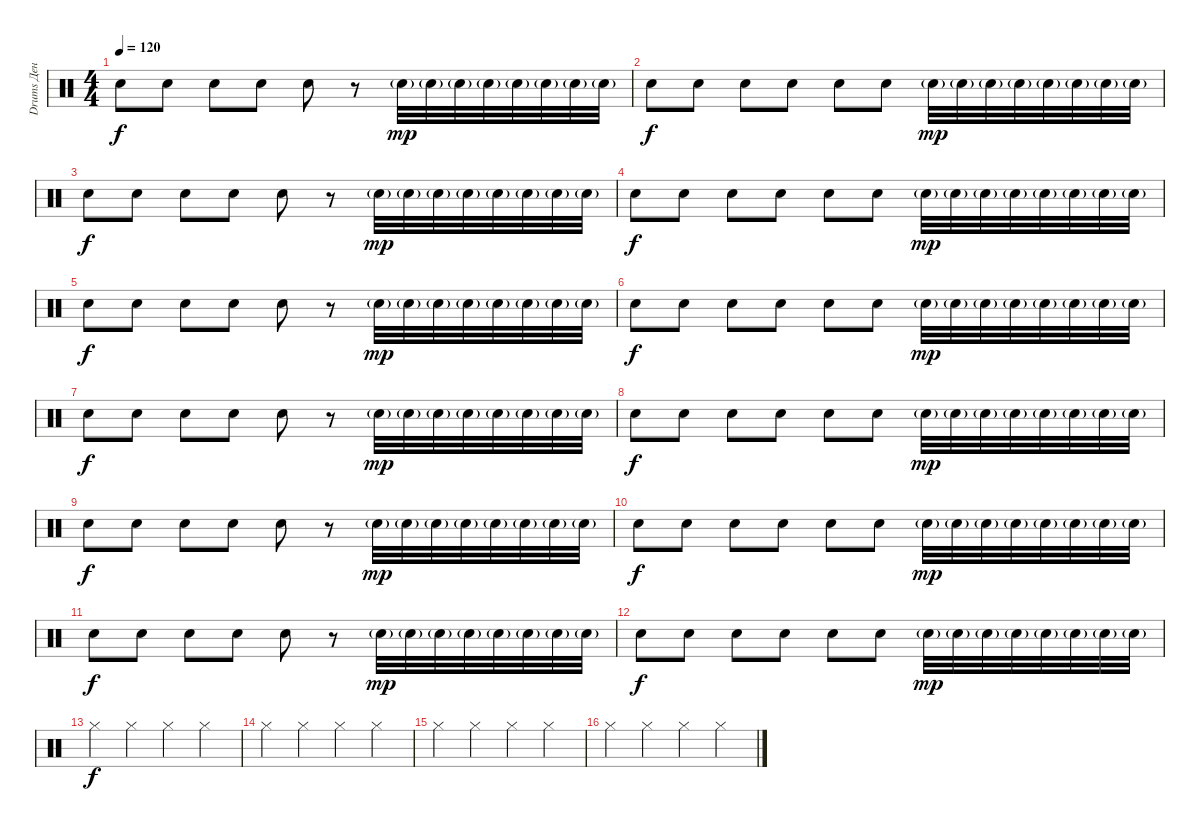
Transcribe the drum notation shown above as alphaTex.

\track ("Drums Ден" "Drums Ден") {instrument percussion}
\staff {score}
\articulation defaults
\ts (4 4)
\tempo 120
\clef neutral
\ks c "Electric Snare (hit)".8{dy f} "Electric Snare (hit)".8 "Electric Snare (hit)".8 "Electric Snare (hit)".8 "Electric Snare (hit)".8
r.8 "Electric Snare (hit)"{g}.32{dy mp} "Electric Snare (hit)"{g}.32 "Electric Snare (hit)"{g}.32 "Electric Snare (hit)"{g}.32 "Electric Snare (hit)"{g}.32 "Electric Snare (hit)"{g}.32 "Electric Snare (hit)"{g}.32 "Electric Snare (hit)"{g}.32 |
"Electric Snare (hit)".8{dy f} "Electric Snare (hit)".8 "Electric Snare (hit)".8 "Electric Snare (hit)".8 "Electric Snare (hit)".8 "Electric Snare (hit)".8 "Electric Snare (hit)"{g}.32{dy mp} "Electric Snare (hit)"{g}.32 "Electric Snare (hit)"{g}.32 "Electric Snare (hit)"{g}.32 "Electric Snare (hit)"{g}.32 "Electric Snare (hit)"{g}.32 "Electric Snare (hit)"{g}.32 "Electric Snare (hit)"{g}.32 |
"Electric Snare (hit)".8{dy f} "Electric Snare (hit)".8 "Electric Snare (hit)".8 "Electric Snare (hit)".8 "Electric Snare (hit)".8 r.8 "Electric Snare (hit)"{g}.32{dy mp} "Electric Snare (hit)"{g}.32 "Electric Snare (hit)"{g}.32 "Electric Snare (hit)"{g}.32 "Electric Snare (hit)"{g}.32 "Electric Snare (hit)"{g}.32 "Electric Snare (hit)"{g}.32 "Electric Snare (hit)"{g}.32 |
"Electric Snare (hit)".8{dy f} "Electric Snare (hit)".8 "Electric Snare (hit)".8 "Electric Snare (hit)".8 "Electric Snare (hit)".8 "Electric Snare (hit)".8 "Electric Snare (hit)"{g}.32{dy mp} "Electric Snare (hit)"{g}.32 "Electric Snare (hit)"{g}.32 "Electric Snare (hit)"{g}.32 "Electric Snare (hit)"{g}.32 "Electric Snare (hit)"{g}.32 "Electric Snare (hit)"{g}.32 "Electric Snare (hit)"{g}.32 |
"Electric Snare (hit)".8{dy f} "Electric Snare (hit)".8 "Electric Snare (hit)".8 "Electric Snare (hit)".8 "Electric Snare (hit)".8 r.8 "Electric Snare (hit)"{g}.32{dy mp} "Electric Snare (hit)"{g}.32 "Electric Snare (hit)"{g}.32 "Electric Snare (hit)"{g}.32 "Electric Snare (hit)"{g}.32 "Electric Snare (hit)"{g}.32 "Electric Snare (hit)"{g}.32 "Electric Snare (hit)"{g}.32 |
"Electric Snare (hit)".8{dy f} "Electric Snare (hit)".8 "Electric Snare (hit)".8 "Electric Snare (hit)".8 "Electric Snare (hit)".8 "Electric Snare (hit)".8 "Electric Snare (hit)"{g}.32{dy mp} "Electric Snare (hit)"{g}.32 "Electric Snare (hit)"{g}.32 "Electric Snare (hit)"{g}.32 "Electric Snare (hit)"{g}.32 "Electric Snare (hit)"{g}.32 "Electric Snare (hit)"{g}.32 "Electric Snare (hit)"{g}.32 |
"Electric Snare (hit)".8{dy f} "Electric Snare (hit)".8 "Electric Snare (hit)".8 "Electric Snare (hit)".8 "Electric Snare (hit)".8 r.8 "Electric Snare (hit)"{g}.32{dy mp} "Electric Snare (hit)"{g}.32 "Electric Snare (hit)"{g}.32 "Electric Snare (hit)"{g}.32 "Electric Snare (hit)"{g}.32 "Electric Snare (hit)"{g}.32 "Electric Snare (hit)"{g}.32 "Electric Snare (hit)"{g}.32 |
"Electric Snare (hit)".8{dy f} "Electric Snare (hit)".8 "Electric Snare (hit)".8 "Electric Snare (hit)".8 "Electric Snare (hit)".8 "Electric Snare (hit)".8 "Electric Snare (hit)"{g}.32{dy mp} "Electric Snare (hit)"{g}.32 "Electric Snare (hit)"{g}.32 "Electric Snare (hit)"{g}.32 "Electric Snare (hit)"{g}.32 "Electric Snare (hit)"{g}.32 "Electric Snare (hit)"{g}.32 "Electric Snare (hit)"{g}.32 |
"Electric Snare (hit)".8{dy f} "Electric Snare (hit)".8 "Electric Snare (hit)".8 "Electric Snare (hit)".8 "Electric Snare (hit)".8 r.8 "Electric Snare (hit)"{g}.32{dy mp} "Electric Snare (hit)"{g}.32 "Electric Snare (hit)"{g}.32 "Electric Snare (hit)"{g}.32 "Electric Snare (hit)"{g}.32 "Electric Snare (hit)"{g}.32 "Electric Snare (hit)"{g}.32 "Electric Snare (hit)"{g}.32 |
"Electric Snare (hit)".8{dy f} "Electric Snare (hit)".8 "Electric Snare (hit)".8 "Electric Snare (hit)".8 "Electric Snare (hit)".8 "Electric Snare (hit)".8 "Electric Snare (hit)"{g}.32{dy mp} "Electric Snare (hit)"{g}.32 "Electric Snare (hit)"{g}.32 "Electric Snare (hit)"{g}.32 "Electric Snare (hit)"{g}.32 "Electric Snare (hit)"{g}.32 "Electric Snare (hit)"{g}.32 "Electric Snare (hit)"{g}.32 |
"Electric Snare (hit)".8{dy f} "Electric Snare (hit)".8 "Electric Snare (hit)".8 "Electric Snare (hit)".8 "Electric Snare (hit)".8 r.8 "Electric Snare (hit)"{g}.32{dy mp} "Electric Snare (hit)"{g}.32 "Electric Snare (hit)"{g}.32 "Electric Snare (hit)"{g}.32 "Electric Snare (hit)"{g}.32 "Electric Snare (hit)"{g}.32 "Electric Snare (hit)"{g}.32 "Electric Snare (hit)"{g}.32 |
"Electric Snare (hit)".8{dy f} "Electric Snare (hit)".8 "Electric Snare (hit)".8 "Electric Snare (hit)".8 "Electric Snare (hit)".8 "Electric Snare (hit)".8 "Electric Snare (hit)"{g}.32{dy mp} "Electric Snare (hit)"{g}.32 "Electric Snare (hit)"{g}.32 "Electric Snare (hit)"{g}.32 "Electric Snare (hit)"{g}.32 "Electric Snare (hit)"{g}.32 "Electric Snare (hit)"{g}.32 "Electric Snare (hit)"{g}.32 |
"Hi-Hat (closed)".4{dy f} "Hi-Hat (closed)".4 "Hi-Hat (closed)".4 "Hi-Hat (closed)".4 |
"Hi-Hat (closed)".4 "Hi-Hat (closed)".4 "Hi-Hat (closed)".4 "Hi-Hat (closed)".4 |
"Hi-Hat (closed)".4 "Hi-Hat (closed)".4 "Hi-Hat (closed)".4 "Hi-Hat (closed)".4 |
"Hi-Hat (closed)".4 "Hi-Hat (closed)".4 "Hi-Hat (closed)".4 "Hi-Hat (closed)".4
